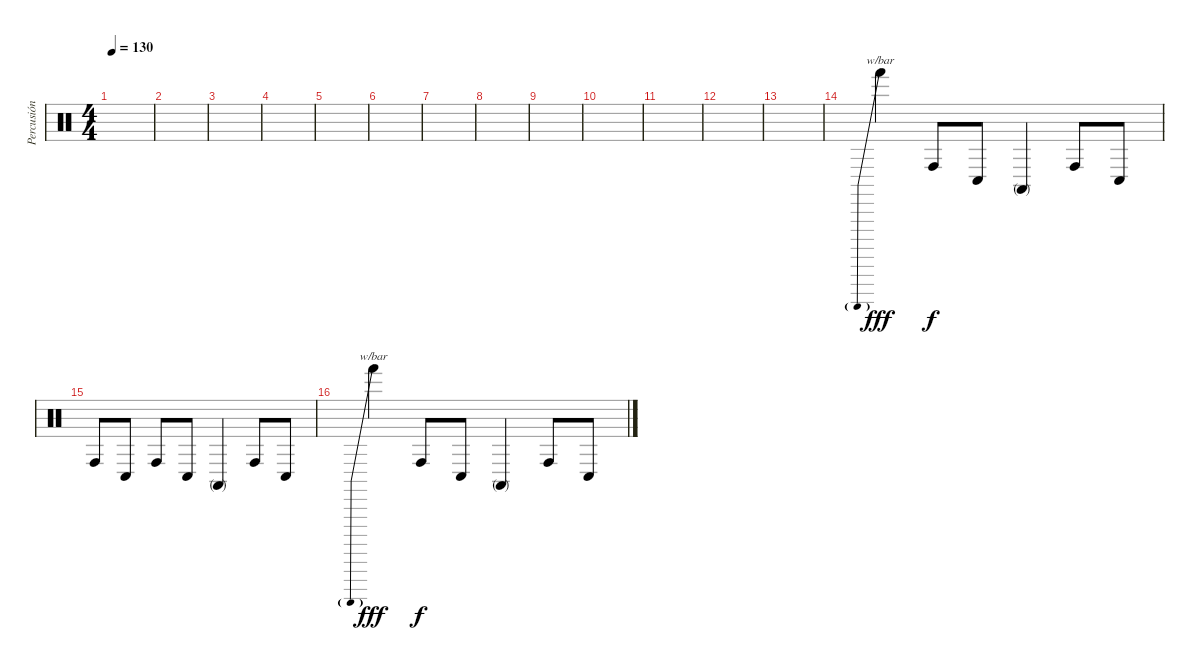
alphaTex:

\track ("Percusión" "Percusión") {instrument percussion}
\staff {score}
\articulation defaults
\ts (4 4)
\tempo 130
\clef neutral
\ks c
|
|
|
|
|
|
|
|
|
|
|
|
|
"Hand (hit)".4{tbe (predive default 0 -8 60 -8) dy fff} "Conga high (hit)".8{dy f} "Conga low (hit)".8 "Conga high (mute)".4 "Conga high (hit)".8 "Conga low (hit)".8 |
"Conga high (hit)".8 "Conga low (hit)".8 "Conga high (hit)".8 "Conga low (hit)".8 "Conga high (mute)".4 "Conga high (hit)".8 "Conga low (hit)".8 |
"Hand (hit)".4{tbe (predive default 0 -8 60 -8) dy fff} "Conga high (hit)".8{dy f} "Conga low (hit)".8 "Conga high (mute)".4 "Conga high (hit)".8 "Conga low (hit)".8
